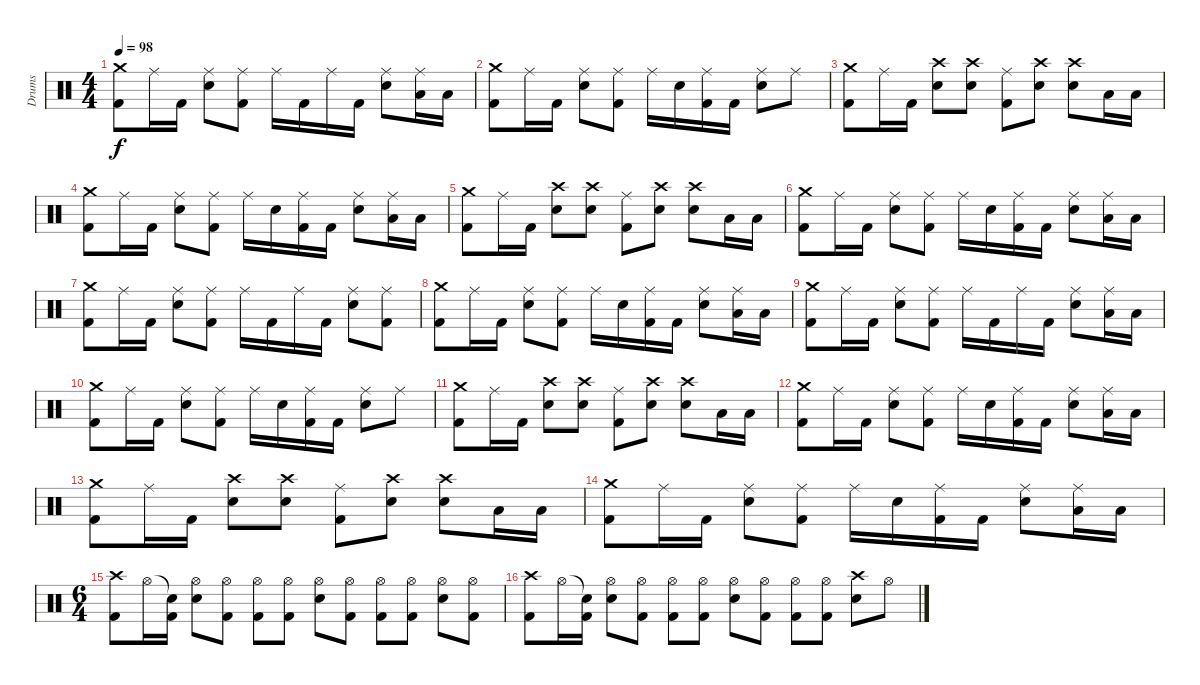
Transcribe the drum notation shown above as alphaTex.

\track ("Drums" "Drums") {instrument percussion}
\staff {score}
\articulation defaults
\ts (4 4)
\tempo 98
\clef neutral
\ks c
("Crash medium (hit)" "Kick (hit) 2").8{dy f} "Ride (middle)".16 "Kick (hit) 2".16 ("Ride (middle)" "Snare (hit) 2").8 ("Ride (middle)" "Kick (hit) 2").8 "Ride (middle)".16 "Kick (hit) 2".16 "Ride (middle)".16 "Kick (hit) 2".16 ("Ride (middle)" "Snare (hit) 2").8 ("Ride (middle)" "Low Tom (hit)").16 "Low Tom (hit)".16 |
("Crash medium (hit)" "Kick (hit) 2").8 "Ride (middle)".16 "Kick (hit) 2".16 ("Ride (middle)" "Snare (hit) 2").8 ("Ride (middle)" "Kick (hit) 2").8 "Ride (middle)".16 "Snare (hit) 2".16 ("Ride (middle)" "Kick (hit) 2").16 "Kick (hit) 2".16 ("Ride (middle)" "Snare (hit) 2").8 "Ride (middle)".8 |
("Crash medium (hit)" "Kick (hit) 2").8 "Ride (middle)".16 "Kick (hit) 2".16 ("Crash high (hit)" "Snare (hit) 2").8 ("Crash high (hit)" "Snare (hit) 2").8 ("Ride (middle)" "Kick (hit) 2").8 ("Crash high (hit)" "Snare (hit) 2").8 ("Crash high (hit)" "Snare (hit) 2").8 "Low Tom (hit)".16 "Low Tom (hit)".16 |
("Crash medium (hit)" "Kick (hit) 2").8 "Ride (middle)".16 "Kick (hit) 2".16 ("Ride (middle)" "Snare (hit) 2").8 ("Ride (middle)" "Kick (hit) 2").8 "Ride (middle)".16 "Snare (hit) 2".16 ("Ride (middle)" "Kick (hit) 2").16 "Kick (hit) 2".16 ("Ride (middle)" "Snare (hit) 2").8 ("Ride (middle)" "Low Tom (hit)").16 "Low Tom (hit)".16 |
("Crash medium (hit)" "Kick (hit) 2").8 "Ride (middle)".16 "Kick (hit) 2".16 ("Crash high (hit)" "Snare (hit) 2").8 ("Crash high (hit)" "Snare (hit) 2").8 ("Ride (middle)" "Kick (hit) 2").8 ("Crash high (hit)" "Snare (hit) 2").8 ("Crash high (hit)" "Snare (hit) 2").8 "Low Tom (hit)".16 "Low Tom (hit)".16 |
("Crash medium (hit)" "Kick (hit) 2").8 "Ride (middle)".16 "Kick (hit) 2".16 ("Ride (middle)" "Snare (hit) 2").8 ("Ride (middle)" "Kick (hit) 2").8 "Ride (middle)".16 "Snare (hit) 2".16 ("Ride (middle)" "Kick (hit) 2").16 "Kick (hit) 2".16 ("Ride (middle)" "Snare (hit) 2").8 ("Ride (middle)" "Low Tom (hit)").16 "Low Tom (hit)".16 |
("Crash medium (hit)" "Kick (hit) 2").8 "Ride (middle)".16 "Kick (hit) 2".16 ("Ride (middle)" "Snare (hit) 2").8 ("Ride (middle)" "Kick (hit) 2").8 "Ride (middle)".16 "Kick (hit) 2".16 "Ride (middle)".16 "Kick (hit) 2".16 ("Ride (middle)" "Snare (hit) 2").8 ("Ride (middle)" "Kick (hit) 2").8 |
("Crash medium (hit)" "Kick (hit) 2").8 "Ride (middle)".16 "Kick (hit) 2".16 ("Ride (middle)" "Snare (hit) 2").8 ("Ride (middle)" "Kick (hit) 2").8 "Ride (middle)".16 "Snare (hit) 2".16 ("Ride (middle)" "Kick (hit) 2").16 "Kick (hit) 2".16 ("Ride (middle)" "Snare (hit) 2").8 ("Ride (middle)" "Low Tom (hit)").16 "Low Tom (hit)".16 |
("Crash medium (hit)" "Kick (hit) 2").8 "Ride (middle)".16 "Kick (hit) 2".16 ("Ride (middle)" "Snare (hit) 2").8 ("Ride (middle)" "Kick (hit) 2").8 "Ride (middle)".16 "Kick (hit) 2".16 "Ride (middle)".16 "Kick (hit) 2".16 ("Ride (middle)" "Snare (hit) 2").8 ("Ride (middle)" "Low Tom (hit)").16 "Low Tom (hit)".16 |
("Crash medium (hit)" "Kick (hit) 2").8 "Ride (middle)".16 "Kick (hit) 2".16 ("Ride (middle)" "Snare (hit) 2").8 ("Ride (middle)" "Kick (hit) 2").8 "Ride (middle)".16 "Snare (hit) 2".16 ("Ride (middle)" "Kick (hit) 2").16 "Kick (hit) 2".16 ("Ride (middle)" "Snare (hit) 2").8 "Ride (middle)".8 |
("Crash medium (hit)" "Kick (hit) 2").8 "Ride (middle)".16 "Kick (hit) 2".16 ("Crash high (hit)" "Snare (hit) 2").8 ("Crash high (hit)" "Snare (hit) 2").8 ("Ride (middle)" "Kick (hit) 2").8 ("Crash high (hit)" "Snare (hit) 2").8 ("Crash high (hit)" "Snare (hit) 2").8 "Low Tom (hit)".16 "Low Tom (hit)".16 |
("Crash medium (hit)" "Kick (hit) 2").8 "Ride (middle)".16 "Kick (hit) 2".16 ("Ride (middle)" "Snare (hit) 2").8 ("Ride (middle)" "Kick (hit) 2").8 "Ride (middle)".16 "Snare (hit) 2".16 ("Ride (middle)" "Kick (hit) 2").16 "Kick (hit) 2".16 ("Ride (middle)" "Snare (hit) 2").8 ("Ride (middle)" "Low Tom (hit)").16 "Low Tom (hit)".16 |
("Crash medium (hit)" "Kick (hit) 2").8 "Ride (middle)".16 "Kick (hit) 2".16 ("Crash high (hit)" "Snare (hit) 2").8 ("Crash high (hit)" "Snare (hit) 2").8 ("Ride (middle)" "Kick (hit) 2").8 ("Crash high (hit)" "Snare (hit) 2").8 ("Crash high (hit)" "Snare (hit) 2").8 "Low Tom (hit)".16 "Low Tom (hit)".16 |
("Crash medium (hit)" "Kick (hit) 2").8 "Ride (middle)".16 "Kick (hit) 2".16 ("Ride (middle)" "Snare (hit) 2").8 ("Ride (middle)" "Kick (hit) 2").8 "Ride (middle)".16 "Snare (hit) 2".16 ("Ride (middle)" "Kick (hit) 2").16 "Kick (hit) 2".16 ("Ride (middle)" "Snare (hit) 2").8 ("Ride (middle)" "Low Tom (hit)").16 "Low Tom (hit)".16 |
\ts (6 4)
("Crash high (hit)" "Kick (hit) 2").8 "Hi-Hat (open)".16 ("Snare (hit)"{t} "Kick (hit) 2").16 ("Hi-Hat (open)" "Snare (hit) 2").8 ("Hi-Hat (open)" "Kick (hit) 2").8 ("Hi-Hat (open)" "Kick (hit) 2").8 ("Hi-Hat (open)" "Kick (hit) 2").8 ("Hi-Hat (open)" "Snare (hit) 2").8 ("Hi-Hat (open)" "Kick (hit) 2").8 ("Hi-Hat (open)" "Kick (hit) 2").8 ("Hi-Hat (open)" "Kick (hit) 2").8 ("Hi-Hat (open)" "Snare (hit) 2").8 ("Hi-Hat (open)" "Kick (hit) 2").8 |
("Crash high (hit)" "Kick (hit) 2").8 "Hi-Hat (open)".16 ("Snare (hit)"{t} "Kick (hit) 2").16 ("Hi-Hat (open)" "Snare (hit) 2").8 ("Hi-Hat (open)" "Kick (hit) 2").8 ("Hi-Hat (open)" "Kick (hit) 2").8 ("Hi-Hat (open)" "Kick (hit) 2").8 ("Hi-Hat (open)" "Snare (hit) 2").8 ("Hi-Hat (open)" "Kick (hit) 2").8 ("Hi-Hat (open)" "Kick (hit) 2").8 ("Hi-Hat (open)" "Kick (hit) 2").8 ("Crash high (hit)" "Snare (hit) 2").8 "Hi-Hat (open)".8
